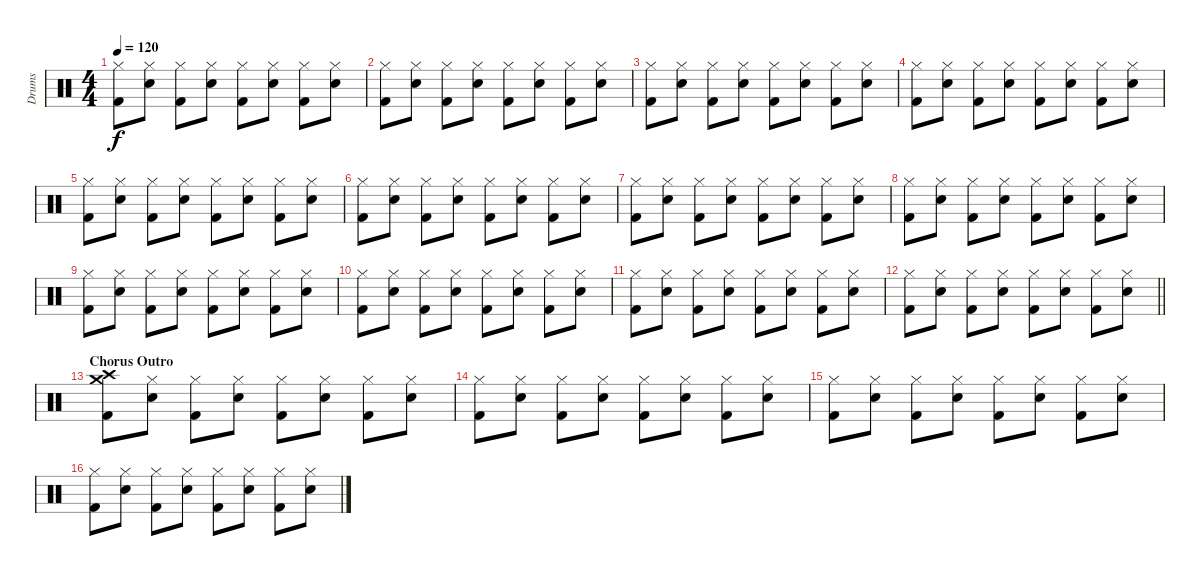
\track ("Drums" "Drums") {instrument percussion}
\staff {score}
\articulation defaults
\ts (4 4)
\tempo 120
\clef neutral
\ks c
("Hi-Hat (closed)" "Kick (hit) 2").8{dy f} ("Hi-Hat (closed)" "Electric Snare (hit)").8 ("Hi-Hat (closed)" "Kick (hit) 2").8 ("Hi-Hat (closed)" "Electric Snare (hit)").8 ("Hi-Hat (closed)" "Kick (hit) 2").8 ("Hi-Hat (closed)" "Electric Snare (hit)").8 ("Hi-Hat (closed)" "Kick (hit) 2").8 ("Hi-Hat (closed)" "Electric Snare (hit)").8 |
("Hi-Hat (closed)" "Kick (hit) 2").8 ("Hi-Hat (closed)" "Electric Snare (hit)").8 ("Hi-Hat (closed)" "Kick (hit) 2").8 ("Hi-Hat (closed)" "Electric Snare (hit)").8 ("Hi-Hat (closed)" "Kick (hit) 2").8 ("Hi-Hat (closed)" "Electric Snare (hit)").8 ("Hi-Hat (closed)" "Kick (hit) 2").8 ("Hi-Hat (closed)" "Electric Snare (hit)").8 |
("Hi-Hat (closed)" "Kick (hit) 2").8 ("Hi-Hat (closed)" "Electric Snare (hit)").8 ("Hi-Hat (closed)" "Kick (hit) 2").8 ("Hi-Hat (closed)" "Electric Snare (hit)").8 ("Hi-Hat (closed)" "Kick (hit) 2").8 ("Hi-Hat (closed)" "Electric Snare (hit)").8 ("Hi-Hat (closed)" "Kick (hit) 2").8 ("Hi-Hat (closed)" "Electric Snare (hit)").8 |
("Hi-Hat (closed)" "Kick (hit) 2").8 ("Hi-Hat (closed)" "Electric Snare (hit)").8 ("Hi-Hat (closed)" "Kick (hit) 2").8 ("Hi-Hat (closed)" "Electric Snare (hit)").8 ("Hi-Hat (closed)" "Kick (hit) 2").8 ("Hi-Hat (closed)" "Electric Snare (hit)").8 ("Hi-Hat (closed)" "Kick (hit) 2").8 ("Hi-Hat (closed)" "Electric Snare (hit)").8 |
("Hi-Hat (closed)" "Kick (hit) 2").8 ("Hi-Hat (closed)" "Electric Snare (hit)").8 ("Hi-Hat (closed)" "Kick (hit) 2").8 ("Hi-Hat (closed)" "Electric Snare (hit)").8 ("Hi-Hat (closed)" "Kick (hit) 2").8 ("Hi-Hat (closed)" "Electric Snare (hit)").8 ("Hi-Hat (closed)" "Kick (hit) 2").8 ("Hi-Hat (closed)" "Electric Snare (hit)").8 |
("Hi-Hat (closed)" "Kick (hit) 2").8 ("Hi-Hat (closed)" "Electric Snare (hit)").8 ("Hi-Hat (closed)" "Kick (hit) 2").8 ("Hi-Hat (closed)" "Electric Snare (hit)").8 ("Hi-Hat (closed)" "Kick (hit) 2").8 ("Hi-Hat (closed)" "Electric Snare (hit)").8 ("Hi-Hat (closed)" "Kick (hit) 2").8 ("Hi-Hat (closed)" "Electric Snare (hit)").8 |
("Hi-Hat (closed)" "Kick (hit) 2").8 ("Hi-Hat (closed)" "Electric Snare (hit)").8 ("Hi-Hat (closed)" "Kick (hit) 2").8 ("Hi-Hat (closed)" "Electric Snare (hit)").8 ("Hi-Hat (closed)" "Kick (hit) 2").8 ("Hi-Hat (closed)" "Electric Snare (hit)").8 ("Hi-Hat (closed)" "Kick (hit) 2").8 ("Hi-Hat (closed)" "Electric Snare (hit)").8 |
("Hi-Hat (closed)" "Kick (hit) 2").8 ("Hi-Hat (closed)" "Electric Snare (hit)").8 ("Hi-Hat (closed)" "Kick (hit) 2").8 ("Hi-Hat (closed)" "Electric Snare (hit)").8 ("Hi-Hat (closed)" "Kick (hit) 2").8 ("Hi-Hat (closed)" "Electric Snare (hit)").8 ("Hi-Hat (closed)" "Kick (hit) 2").8 ("Hi-Hat (closed)" "Electric Snare (hit)").8 |
("Hi-Hat (closed)" "Kick (hit) 2").8 ("Hi-Hat (closed)" "Electric Snare (hit)").8 ("Hi-Hat (closed)" "Kick (hit) 2").8 ("Hi-Hat (closed)" "Electric Snare (hit)").8 ("Hi-Hat (closed)" "Kick (hit) 2").8 ("Hi-Hat (closed)" "Electric Snare (hit)").8 ("Hi-Hat (closed)" "Kick (hit) 2").8 ("Hi-Hat (closed)" "Electric Snare (hit)").8 |
("Hi-Hat (closed)" "Kick (hit) 2").8 ("Hi-Hat (closed)" "Electric Snare (hit)").8 ("Hi-Hat (closed)" "Kick (hit) 2").8 ("Hi-Hat (closed)" "Electric Snare (hit)").8 ("Hi-Hat (closed)" "Kick (hit) 2").8 ("Hi-Hat (closed)" "Electric Snare (hit)").8 ("Hi-Hat (closed)" "Kick (hit) 2").8 ("Hi-Hat (closed)" "Electric Snare (hit)").8 |
("Hi-Hat (closed)" "Kick (hit) 2").8 ("Hi-Hat (closed)" "Electric Snare (hit)").8 ("Hi-Hat (closed)" "Kick (hit) 2").8 ("Hi-Hat (closed)" "Electric Snare (hit)").8 ("Hi-Hat (closed)" "Kick (hit) 2").8 ("Hi-Hat (closed)" "Electric Snare (hit)").8 ("Hi-Hat (closed)" "Kick (hit) 2").8 ("Hi-Hat (closed)" "Electric Snare (hit)").8 |
\barLineRight lightlight
("Hi-Hat (closed)" "Kick (hit) 2").8 ("Hi-Hat (closed)" "Electric Snare (hit)").8 ("Hi-Hat (closed)" "Kick (hit) 2").8 ("Hi-Hat (closed)" "Electric Snare (hit)").8 ("Hi-Hat (closed)" "Kick (hit) 2").8 ("Hi-Hat (closed)" "Electric Snare (hit)").8 ("Hi-Hat (closed)" "Kick (hit) 2").8 ("Hi-Hat (closed)" "Electric Snare (hit)").8 |
\section ("" "Chorus Outro")
("Crash high (hit)" "Crash medium (hit)" "Kick (hit) 2").8 ("Hi-Hat (closed)" "Electric Snare (hit)").8 ("Hi-Hat (closed)" "Kick (hit) 2").8 ("Hi-Hat (closed)" "Electric Snare (hit)").8 ("Hi-Hat (closed)" "Kick (hit) 2").8 ("Hi-Hat (closed)" "Electric Snare (hit)").8 ("Hi-Hat (closed)" "Kick (hit) 2").8 ("Hi-Hat (closed)" "Electric Snare (hit)").8 |
("Hi-Hat (closed)" "Kick (hit) 2").8 ("Hi-Hat (closed)" "Electric Snare (hit)").8 ("Hi-Hat (closed)" "Kick (hit) 2").8 ("Hi-Hat (closed)" "Electric Snare (hit)").8 ("Hi-Hat (closed)" "Kick (hit) 2").8 ("Hi-Hat (closed)" "Electric Snare (hit)").8 ("Hi-Hat (closed)" "Kick (hit) 2").8 ("Hi-Hat (closed)" "Electric Snare (hit)").8 |
("Hi-Hat (closed)" "Kick (hit) 2").8 ("Hi-Hat (closed)" "Electric Snare (hit)").8 ("Hi-Hat (closed)" "Kick (hit) 2").8 ("Hi-Hat (closed)" "Electric Snare (hit)").8 ("Hi-Hat (closed)" "Kick (hit) 2").8 ("Hi-Hat (closed)" "Electric Snare (hit)").8 ("Hi-Hat (closed)" "Kick (hit) 2").8 ("Hi-Hat (closed)" "Electric Snare (hit)").8 |
("Hi-Hat (closed)" "Kick (hit) 2").8 ("Hi-Hat (closed)" "Electric Snare (hit)").8 ("Hi-Hat (closed)" "Kick (hit) 2").8 ("Hi-Hat (closed)" "Electric Snare (hit)").8 ("Hi-Hat (closed)" "Kick (hit) 2").8 ("Hi-Hat (closed)" "Electric Snare (hit)").8 ("Hi-Hat (closed)" "Kick (hit) 2").8 ("Hi-Hat (closed)" "Electric Snare (hit)").8
